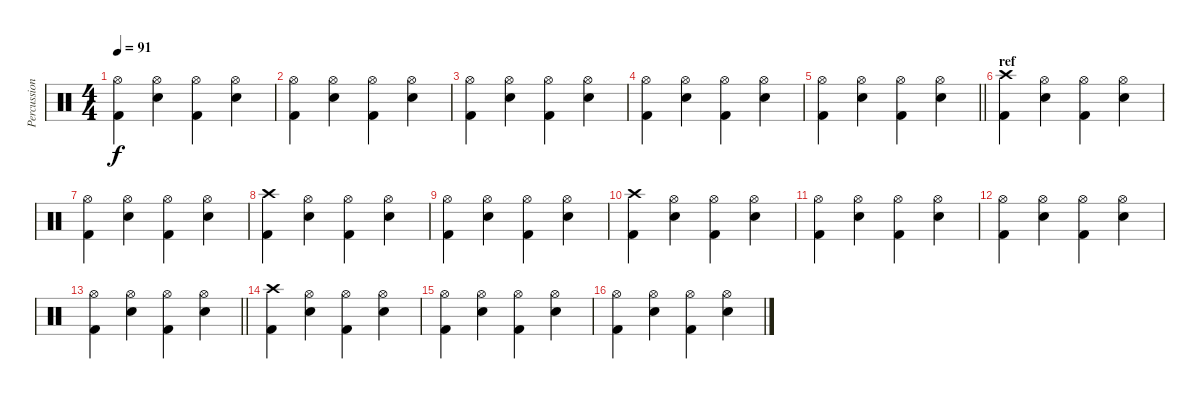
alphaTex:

\track ("Percussion" "Percussion") {instrument percussion}
\staff {score}
\articulation defaults
\ts (4 4)
\tempo 91
\clef neutral
\ks c
("Hi-Hat (open)" "Kick (hit) 2").4{dy f} ("Snare (hit) 2" "Hi-Hat (open)").4 ("Hi-Hat (open)" "Kick (hit) 2").4 ("Hi-Hat (open)" "Snare (hit) 2").4 |
("Hi-Hat (open)" "Kick (hit) 2").4 ("Snare (hit) 2" "Hi-Hat (open)").4 ("Hi-Hat (open)" "Kick (hit) 2").4 ("Hi-Hat (open)" "Snare (hit) 2").4 |
("Hi-Hat (open)" "Kick (hit) 2").4 ("Snare (hit) 2" "Hi-Hat (open)").4 ("Hi-Hat (open)" "Kick (hit) 2").4 ("Hi-Hat (open)" "Snare (hit) 2").4 |
("Hi-Hat (open)" "Kick (hit) 2").4 ("Snare (hit) 2" "Hi-Hat (open)").4 ("Hi-Hat (open)" "Kick (hit) 2").4 ("Hi-Hat (open)" "Snare (hit) 2").4 |
\barLineRight lightlight
("Hi-Hat (open)" "Kick (hit) 2").4 ("Snare (hit) 2" "Hi-Hat (open)").4 ("Hi-Hat (open)" "Kick (hit) 2").4 ("Hi-Hat (open)" "Snare (hit) 2").4 |
\section ("" "ref")
("Crash high (hit)" "Kick (hit) 2").4 ("Snare (hit) 2" "Hi-Hat (open)").4 ("Hi-Hat (open)" "Kick (hit) 2").4 ("Hi-Hat (open)" "Snare (hit) 2").4 |
("Hi-Hat (open)" "Kick (hit) 2").4 ("Snare (hit) 2" "Hi-Hat (open)").4 ("Hi-Hat (open)" "Kick (hit) 2").4 ("Hi-Hat (open)" "Snare (hit) 2").4 |
("Crash high (hit)" "Kick (hit) 2").4 ("Snare (hit) 2" "Hi-Hat (open)").4 ("Hi-Hat (open)" "Kick (hit) 2").4 ("Hi-Hat (open)" "Snare (hit) 2").4 |
("Hi-Hat (open)" "Kick (hit) 2").4 ("Snare (hit) 2" "Hi-Hat (open)").4 ("Hi-Hat (open)" "Kick (hit) 2").4 ("Hi-Hat (open)" "Snare (hit) 2").4 |
("Crash high (hit)" "Kick (hit) 2").4 ("Snare (hit) 2" "Hi-Hat (open)").4 ("Hi-Hat (open)" "Kick (hit) 2").4 ("Hi-Hat (open)" "Snare (hit) 2").4 |
("Hi-Hat (open)" "Kick (hit) 2").4 ("Snare (hit) 2" "Hi-Hat (open)").4 ("Hi-Hat (open)" "Kick (hit) 2").4 ("Hi-Hat (open)" "Snare (hit) 2").4 |
("Hi-Hat (open)" "Kick (hit) 2").4 ("Snare (hit) 2" "Hi-Hat (open)").4 ("Hi-Hat (open)" "Kick (hit) 2").4 ("Hi-Hat (open)" "Snare (hit) 2").4 |
\barLineRight lightlight
("Hi-Hat (open)" "Kick (hit) 2").4 ("Snare (hit) 2" "Hi-Hat (open)").4 ("Hi-Hat (open)" "Kick (hit) 2").4 ("Hi-Hat (open)" "Snare (hit) 2").4 |
("Crash high (hit)" "Kick (hit) 2").4 ("Snare (hit) 2" "Hi-Hat (open)").4 ("Hi-Hat (open)" "Kick (hit) 2").4 ("Hi-Hat (open)" "Snare (hit) 2").4 |
("Hi-Hat (open)" "Kick (hit) 2").4 ("Snare (hit) 2" "Hi-Hat (open)").4 ("Hi-Hat (open)" "Kick (hit) 2").4 ("Hi-Hat (open)" "Snare (hit) 2").4 |
("Hi-Hat (open)" "Kick (hit) 2").4 ("Snare (hit) 2" "Hi-Hat (open)").4 ("Hi-Hat (open)" "Kick (hit) 2").4 ("Hi-Hat (open)" "Snare (hit) 2").4
